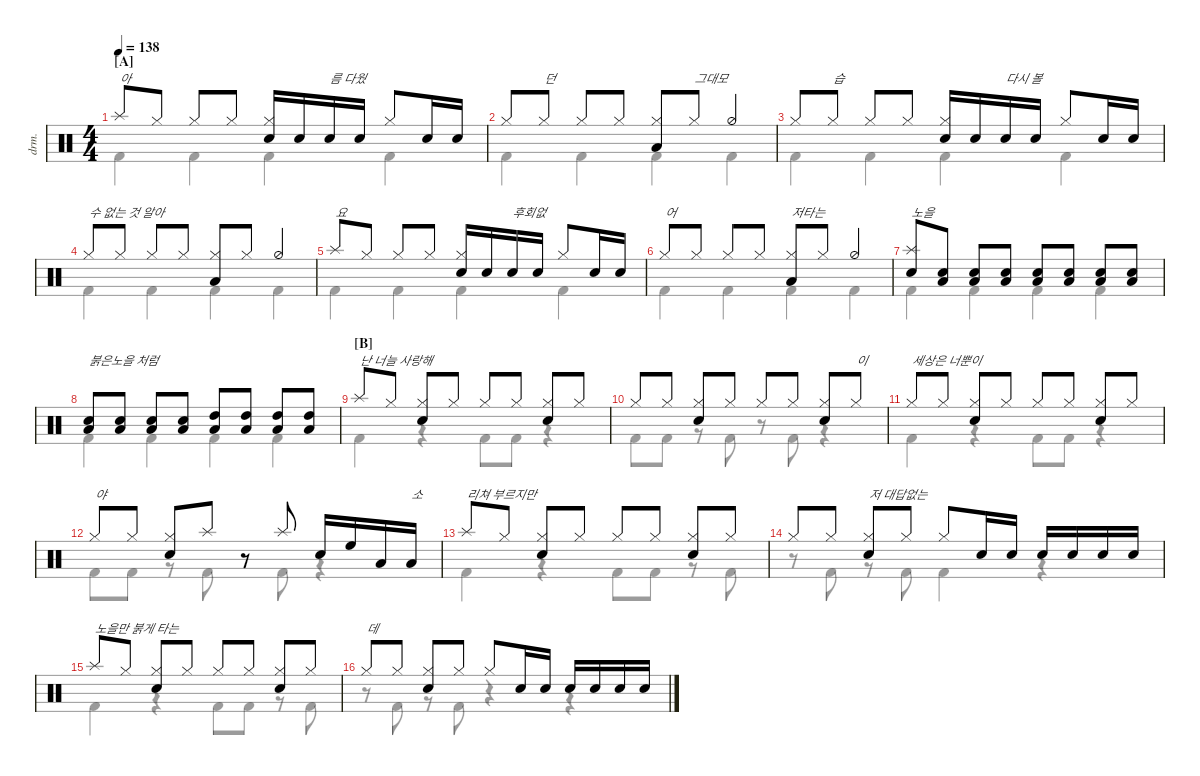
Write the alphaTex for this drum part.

\defaultSystemsLayout 4
\hideDynamics
\bracketExtendMode nobrackets
\track ("Drumkit" "drm.") {instrument percussion}
\staff {score}
\articulation defaults
\voice
\ts (4 4)
\section ("A" "")
\tempo 138
\clef neutral
\ks c "Splash (hit)".8{txt "아" dy mf beam Up} "Hi-Hat (closed)".8{beam Up} "Hi-Hat (closed)".8{beam Up} "Hi-Hat (closed)".8{beam Up}
("Hi-Hat (closed)" "Snare (hit) 2").16{beam Up} "Snare (hit) 2".16{beam Up} "Snare (hit) 2".16{txt "름 다웠" beam Up} "Snare (hit) 2".16{beam Up} "Hi-Hat (closed)".8{beam Up} "Snare (hit) 2".16{beam Up} "Snare (hit) 2".16{beam Up} |
"Hi-Hat (closed)".8{beam Up} "Hi-Hat (closed)".8{txt "던" beam Up} "Hi-Hat (closed)".8{beam Up} "Hi-Hat (closed)".8{beam Up} ("Hi-Hat (closed)" "Low Tom (hit)").8{beam Up} "Hi-Hat (closed)".8{txt "그대모" beam Up} "Hi-Hat (half)".4{beam Up} |
"Hi-Hat (closed)".8{beam Up} "Hi-Hat (closed)".8{txt "습" beam Up} "Hi-Hat (closed)".8{beam Up} "Hi-Hat (closed)".8{beam Up} ("Hi-Hat (closed)" "Snare (hit) 2").16{beam Up} "Snare (hit) 2".16{beam Up} "Snare (hit) 2".16{txt "다시 볼" beam Up} "Snare (hit) 2".16{beam Up} "Hi-Hat (closed)".8{beam Up} "Snare (hit) 2".16{beam Up} "Snare (hit) 2".16{beam Up} |
"Hi-Hat (closed)".8{txt "수 없는 것 알아" beam Up} "Hi-Hat (closed)".8{beam Up} "Hi-Hat (closed)".8{beam Up} "Hi-Hat (closed)".8{beam Up} ("Hi-Hat (closed)" "Low Tom (hit)").8{beam Up} "Hi-Hat (closed)".8{beam Up} "Hi-Hat (half)".4{beam Up} |
"Splash (hit)".8{txt "요" beam Up} "Hi-Hat (closed)".8{beam Up} "Hi-Hat (closed)".8{beam Up} "Hi-Hat (closed)".8{beam Up} ("Hi-Hat (closed)" "Snare (hit) 2").16{beam Up} "Snare (hit) 2".16{beam Up} "Snare (hit) 2".16{txt "후회없" beam Up} "Snare (hit) 2".16{beam Up} "Hi-Hat (closed)".8{beam Up} "Snare (hit) 2".16{beam Up} "Snare (hit) 2".16{beam Up} |
"Hi-Hat (closed)".8{txt "어" beam Up} "Hi-Hat (closed)".8{beam Up} "Hi-Hat (closed)".8{beam Up} "Hi-Hat (closed)".8{beam Up} ("Hi-Hat (closed)" "Low Tom (hit)").8{txt "저타는" beam Up} "Hi-Hat (closed)".8{beam Up} "Hi-Hat (half)".4{beam Up} |
("Splash (hit)" "Snare (hit) 2").8{txt "노을" beam Up} ("Snare (hit) 2" "Low Tom (hit)").8{beam Up} ("Snare (hit) 2" "Low Tom (hit)").8{beam Up} ("Snare (hit) 2" "Low Tom (hit)").8{beam Up} ("Snare (hit) 2" "Low Tom (hit)").8{beam Up} ("Snare (hit) 2" "Low Tom (hit)").8{beam Up} ("Snare (hit) 2" "Low Tom (hit)").8{beam Up} ("Snare (hit) 2" "Low Tom (hit)").8{beam Up} |
("Snare (hit) 2" "Low Tom (hit)").8{txt "붉은노을 처럼" beam Up} ("Snare (hit) 2" "Low Tom (hit)").8{beam Up} ("Snare (hit) 2" "Low Tom (hit)").8{beam Up} ("Snare (hit) 2" "Low Tom (hit)").8{beam Up} ("High Tom (hit)" "Low Tom (hit)").8{beam Up} ("High Tom (hit)" "Low Tom (hit)").8{beam Up} ("High Tom (hit)" "Low Tom (hit)").8{beam Up} ("High Tom (hit)" "Low Tom (hit)").8{beam Up} |
\section ("B" "")
"Splash (hit)".8{txt "난 너늘 사랑해" beam Up} "Hi-Hat (closed)".8{beam Up} ("Hi-Hat (closed)" "Snare (hit) 2").8{beam Up} "Hi-Hat (closed)".8{beam Up} "Hi-Hat (closed)".8{beam Up} "Hi-Hat (closed)".8{beam Up} ("Hi-Hat (closed)" "Snare (hit) 2").8{beam Up} "Hi-Hat (closed)".8{beam Up} |
"Hi-Hat (closed)".8{beam Up} "Hi-Hat (closed)".8{beam Up} ("Hi-Hat (closed)" "Snare (hit) 2").8{beam Up} "Hi-Hat (closed)".8{beam Up} "Hi-Hat (closed)".8{beam Up} "Hi-Hat (closed)".8{beam Up} ("Hi-Hat (closed)" "Snare (hit) 2").8{beam Up} "Hi-Hat (closed)".8{txt "이" beam Up} |
"Hi-Hat (closed)".8{txt "세상은 너뿐이" beam Up} "Hi-Hat (closed)".8{beam Up} ("Hi-Hat (closed)" "Snare (hit) 2").8{beam Up} "Hi-Hat (closed)".8{beam Up} "Hi-Hat (closed)".8{beam Up} "Hi-Hat (closed)".8{beam Up} ("Hi-Hat (closed)" "Snare (hit) 2").8{beam Up} "Hi-Hat (closed)".8{beam Up} |
"Hi-Hat (closed)".8{txt "야" beam Up} "Hi-Hat (closed)".8{beam Up} ("Hi-Hat (closed)" "Snare (hit) 2").8{beam Up} "Splash (hit)".8{beam Up} r.8{beam Up} "Splash (hit)".8{beam Up} "Snare (hit) 2".16{beam Up} "High Floor Tom (hit)".16{beam Up} "Low Tom (hit)".16{beam Up} "Low Tom (hit)".16{txt "소" beam Up} |
"Splash (hit)".8{txt "리쳐 부르지만" beam Up} "Hi-Hat (closed)".8{beam Up} ("Hi-Hat (closed)" "Snare (hit) 2").8{beam Up} "Hi-Hat (closed)".8{beam Up} "Hi-Hat (closed)".8{beam Up} "Hi-Hat (closed)".8{beam Up} ("Hi-Hat (closed)" "Snare (hit) 2").8{beam Up} "Hi-Hat (closed)".8{beam Up} |
"Hi-Hat (closed)".8{beam Up} "Hi-Hat (closed)".8{beam Up} ("Hi-Hat (closed)" "Snare (hit) 2").8{txt "저 대답없는" beam Up} "Hi-Hat (closed)".8{beam Up} "Hi-Hat (closed)".8{beam Up} "Snare (hit) 2".16{beam Up} "Snare (hit) 2".16{beam Up} "Snare (hit) 2".16{beam Up} "Snare (hit) 2".16{beam Up} "Snare (hit) 2".16{beam Up} "Snare (hit) 2".16{beam Up} |
"Splash (hit)".8{txt "노을만 붉게 타는" beam Up} "Hi-Hat (closed)".8{beam Up} ("Hi-Hat (closed)" "Snare (hit) 2").8{beam Up} "Hi-Hat (closed)".8{beam Up} "Hi-Hat (closed)".8{beam Up} "Hi-Hat (closed)".8{beam Up} ("Hi-Hat (closed)" "Snare (hit) 2").8{beam Up} "Hi-Hat (closed)".8{beam Up} |
"Hi-Hat (closed)".8{txt "데" beam Up} "Hi-Hat (closed)".8{beam Up} ("Hi-Hat (closed)" "Snare (hit) 2").8{beam Up} "Hi-Hat (closed)".8{beam Up} "Hi-Hat (closed)".8{beam Up} "Snare (hit) 2".16{beam Up} "Snare (hit) 2".16{beam Up} "Snare (hit) 2".16{beam Up} "Snare (hit) 2".16{beam Up} "Snare (hit) 2".16{beam Up} "Snare (hit) 2".16{beam Up}
\voice
\clef neutral
\ottava regular
\simile none
\ks c
|
|
|
|
|
|
|
|
|
|
|
|
|
|
|
\voice
\clef neutral
\ottava regular
\simile none
\ks c "Kick (hit) 2".4{dy mf beam Down} "Kick (hit) 2".4{beam Down} "Kick (hit) 2".4{beam Down} "Kick (hit) 2".4{beam Down}
|
"Kick (hit) 2".4{beam Down} "Kick (hit) 2".4{beam Down} "Kick (hit) 2".4{beam Down} "Kick (hit) 2".4{beam Down} |
"Kick (hit) 2".4{beam Down} "Kick (hit) 2".4{beam Down} "Kick (hit) 2".4{beam Down} "Kick (hit) 2".4{beam Down} |
"Kick (hit) 2".4{beam Down} "Kick (hit) 2".4{beam Down} "Kick (hit) 2".4{beam Down} "Kick (hit) 2".4{beam Down} |
"Kick (hit) 2".4{beam Down} "Kick (hit) 2".4{beam Down} "Kick (hit) 2".4{beam Down} "Kick (hit) 2".4{beam Down} |
"Kick (hit) 2".4{beam Down} "Kick (hit) 2".4{beam Down} "Kick (hit) 2".4{beam Down} "Kick (hit) 2".4{beam Down} |
"Kick (hit) 2".4{beam Down} "Kick (hit) 2".4{beam Down} "Kick (hit) 2".4{beam Down} "Kick (hit) 2".4{beam Down} |
"Kick (hit) 2".4{beam Down} "Kick (hit) 2".4{beam Down} "Kick (hit) 2".4{beam Down} "Kick (hit) 2".4{beam Down} |
"Kick (hit) 2".4{beam Down} r.4{beam Down} "Kick (hit) 2".8{beam Down} "Kick (hit) 2".8{beam Down} r.4{beam Down} |
"Kick (hit) 2".8{beam Down} "Kick (hit) 2".8{beam Down} r.8{beam Down} "Kick (hit) 2".8{beam Down} r.8{beam Down} "Kick (hit) 2".8{beam Down} r.4{beam Down} |
"Kick (hit) 2".4{beam Down} r.4{beam Down} "Kick (hit) 2".8{beam Down} "Kick (hit) 2".8{beam Down} r.4{beam Down} |
"Kick (hit) 2".8{beam Down} "Kick (hit) 2".8{beam Down} r.8{beam Down} "Kick (hit) 2".8{beam Down} r.8{beam Down} "Kick (hit) 2".8{beam Down} r.4{beam Down} |
"Kick (hit) 2".4{beam Down} r.4{beam Down} "Kick (hit) 2".8{beam Down} "Kick (hit) 2".8{beam Down} r.8{beam Down} "Kick (hit) 2".8{beam Down} |
r.8{beam Down} "Kick (hit) 2".8{beam Down} r.8{beam Down} "Kick (hit) 2".8{beam Down} "Kick (hit) 2".4{beam Down} r.4{beam Down} |
"Kick (hit) 2".4{beam Down} r.4{beam Down} "Kick (hit) 2".8{beam Down} "Kick (hit) 2".8{beam Down} r.8{beam Down} "Kick (hit) 2".8{beam Down} |
r.8{beam Down} "Kick (hit) 2".8{beam Down} r.8{beam Down} "Kick (hit) 2".8{beam Down} r.4{beam Down} r.4{beam Down}
